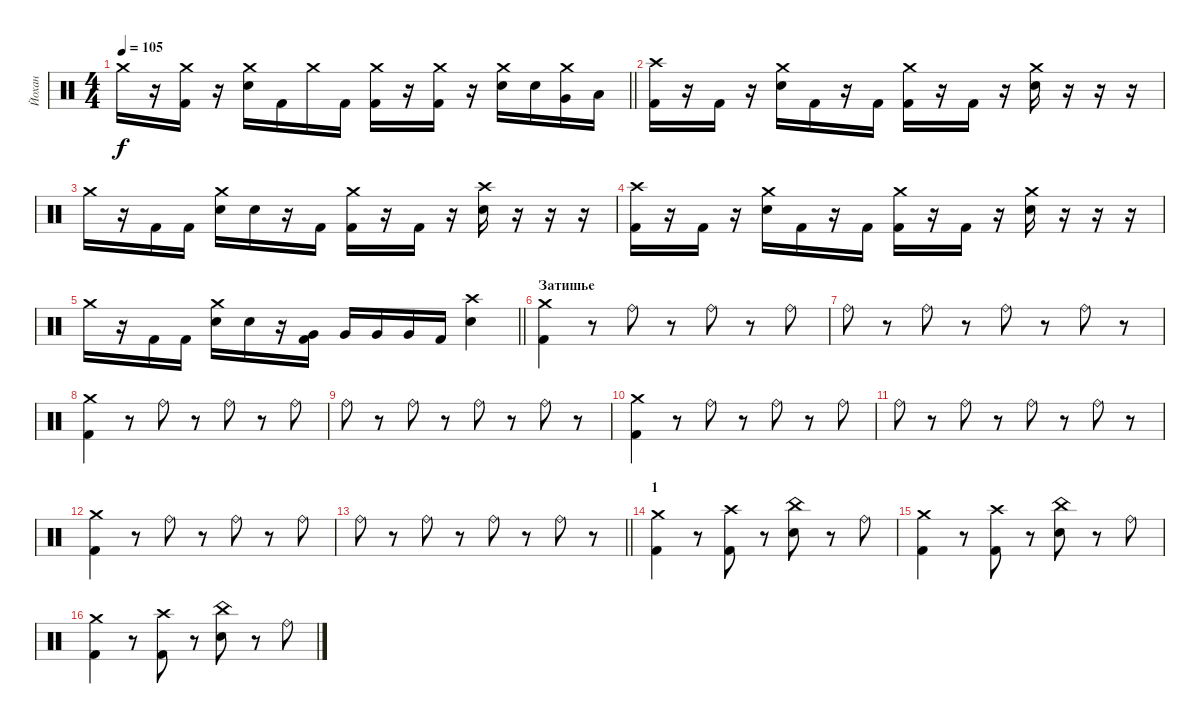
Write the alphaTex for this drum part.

\track ("Йохан" "Йохан") {instrument percussion}
\staff {score}
\articulation defaults
\ts (4 4)
\tempo 105
\clef neutral
\barLineRight lightlight
\ks c "Crash medium (hit)".16{dy f}
r.16 ("Crash medium (hit)" "Kick (hit) 2").16 r.16 ("Crash medium (hit)" "Snare (hit) 2").16 "Kick (hit) 2".16 "Crash medium (hit)".16 "Kick (hit) 2".16 ("Crash medium (hit)" "Kick (hit) 2").16 r.16 ("Crash medium (hit)" "Kick (hit) 2").16 r.16 ("Crash medium (hit)" "Snare (hit) 2").16 "Snare (hit) 2".16 ("Crash medium (hit)" "Very Low Tom (hit)").16 "Low Tom (hit)".16 |
("Crash high (hit)" "Kick (hit) 2").16 r.16 "Kick (hit) 2".16 r.16 ("Crash medium (hit)" "Snare (hit) 2").16 "Kick (hit) 2".16 r.16 "Kick (hit) 2".16 ("Crash medium (hit)" "Kick (hit) 2").16 r.16 "Kick (hit) 2".16 r.16 ("Crash medium (hit)" "Snare (hit) 2").16 r.16 r.16 r.16 |
"Crash medium (hit)".16 r.16 "Kick (hit) 2".16 "Kick (hit) 2".16 ("Crash medium (hit)" "Snare (hit) 2").16 "Snare (hit) 2".16 r.16 "Kick (hit) 2".16 ("Crash medium (hit)" "Kick (hit) 2").16 r.16 "Kick (hit) 2".16 r.16 ("Crash high (hit)" "Snare (hit) 2").16 r.16 r.16 r.16 |
("Crash high (hit)" "Kick (hit) 2").16 r.16 "Kick (hit) 2".16 r.16 ("Crash medium (hit)" "Snare (hit) 2").16 "Kick (hit) 2".16 r.16 "Kick (hit) 2".16 ("Crash medium (hit)" "Kick (hit) 2").16 r.16 "Kick (hit) 2".16 r.16 ("Crash medium (hit)" "Snare (hit) 2").16 r.16 r.16 r.16 |
\barLineRight lightlight "Crash medium (hit)".16
r.16 "Kick (hit) 2".16 "Kick (hit) 2".16 ("Crash medium (hit)" "Snare (hit) 2").16 "Snare (hit) 2".16 r.16 ("Very Low Tom (hit)" "Kick (hit) 2").16 "Very Low Tom (hit)".16 "Very Low Tom (hit)".16 "Very Low Tom (hit)".16 "Kick (hit) 2".16 ("Crash high (hit)" "Snare (hit) 2").4 |
\section ("" "Затишье")
("Crash medium (hit)" "Kick (hit) 2").4 r.8 "Ride (bell)".8 r.8 "Ride (bell)".8 r.8 "Ride (bell)".8 |
"Ride (bell)".8 r.8 "Ride (bell)".8 r.8 "Ride (bell)".8 r.8 "Ride (bell)".8 r.8 |
("Crash medium (hit)" "Kick (hit) 2").4 r.8 "Ride (bell)".8 r.8 "Ride (bell)".8 r.8 "Ride (bell)".8 |
"Ride (bell)".8 r.8 "Ride (bell)".8 r.8 "Ride (bell)".8 r.8 "Ride (bell)".8 r.8 |
("Crash medium (hit)" "Kick (hit) 2").4 r.8 "Ride (bell)".8 r.8 "Ride (bell)".8 r.8 "Ride (bell)".8 |
"Ride (bell)".8 r.8 "Ride (bell)".8 r.8 "Ride (bell)".8 r.8 "Ride (bell)".8 r.8 |
("Crash medium (hit)" "Kick (hit) 2").4 r.8 "Ride (bell)".8 r.8 "Ride (bell)".8 r.8 "Ride (bell)".8 |
\barLineRight lightlight "Ride (bell)".8
r.8 "Ride (bell)".8 r.8 "Ride (bell)".8 r.8 "Ride (bell)".8 r.8 |
\section ("" "1")
("Crash medium (hit)" "Kick (hit) 2").4 r.8 ("Crash high (hit)" "Kick (hit) 2").8 r.8 ("China (hit)" "Snare (hit) 2").8 r.8 "Ride (bell)".8 |
("Crash medium (hit)" "Kick (hit) 2").4 r.8 ("Crash high (hit)" "Kick (hit) 2").8 r.8 ("China (hit)" "Snare (hit) 2").8 r.8 "Ride (bell)".8 |
("Crash medium (hit)" "Kick (hit) 2").4 r.8 ("Crash high (hit)" "Kick (hit) 2").8 r.8 ("China (hit)" "Snare (hit) 2").8 r.8 "Ride (bell)".8
